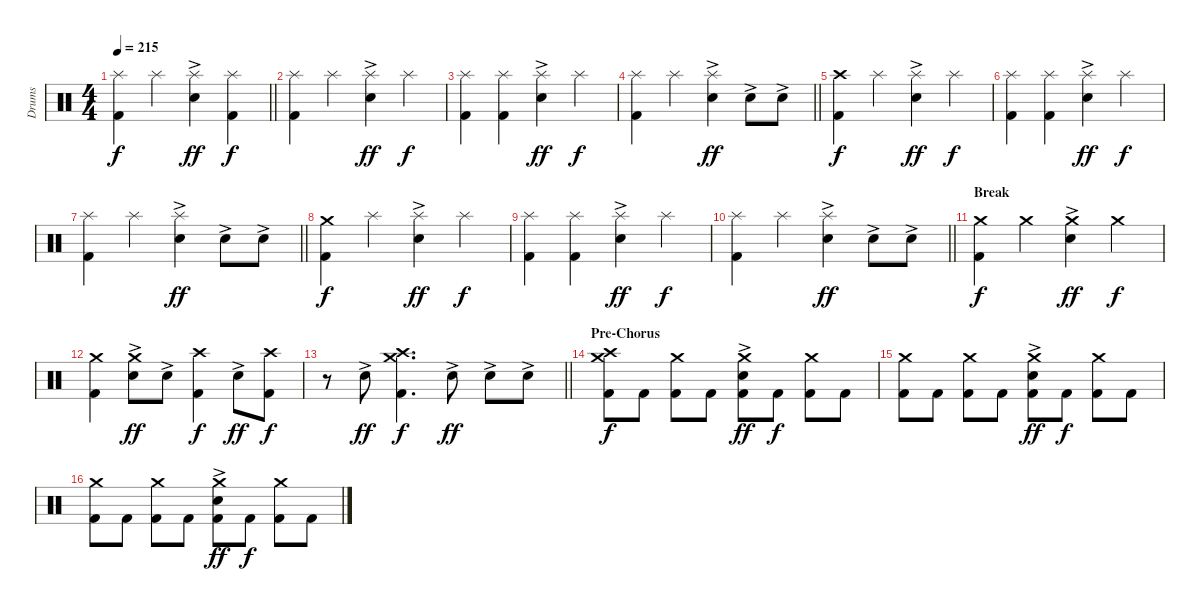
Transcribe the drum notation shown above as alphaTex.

\track ("Drums" "Drums") {instrument percussion}
\staff {score}
\articulation defaults
\ts (4 4)
\tempo 215
\clef neutral
\barLineRight lightlight
\ks c
("Kick (hit) 2" "Splash (hit)").4{dy f} "Splash (hit)".4 ("Snare (hit) 2"{ac} "Splash (hit)").4{dy ff} ("Kick (hit) 2" "Splash (hit)").4{dy f} |
\section ("" "")
("Kick (hit) 2" "Splash (hit)").4 "Splash (hit)".4 ("Snare (hit) 2"{ac} "Splash (hit)").4{dy ff} "Splash (hit)".4{dy f} |
("Kick (hit) 2" "Splash (hit)").4 ("Kick (hit) 2" "Splash (hit)").4 ("Snare (hit) 2"{ac} "Splash (hit)").4{dy ff} "Splash (hit)".4{dy f} |
\barLineRight lightlight
("Kick (hit) 2" "Splash (hit)").4 "Splash (hit)".4 ("Snare (hit) 2"{ac} "Splash (hit)").4{dy ff} "Snare (hit) 2"{ac}.8 "Snare (hit) 2"{ac}.8 |
\section ("" "")
("Kick (hit) 2" "Crash high (hit)").4{dy f} "Splash (hit)".4 ("Snare (hit) 2"{ac} "Splash (hit)").4{dy ff} "Splash (hit)".4{dy f} |
("Kick (hit) 2" "Splash (hit)").4 ("Kick (hit) 2" "Splash (hit)").4 ("Snare (hit) 2"{ac} "Splash (hit)").4{dy ff} "Splash (hit)".4{dy f} |
\barLineRight lightlight
("Kick (hit) 2" "Splash (hit)").4 "Splash (hit)".4 ("Snare (hit) 2"{ac} "Splash (hit)").4{dy ff} "Snare (hit) 2"{ac}.8 "Snare (hit) 2"{ac}.8 |
\section ("" "")
("Kick (hit) 2" "Crash medium (hit)").4{dy f} "Splash (hit)".4 ("Snare (hit) 2"{ac} "Splash (hit)").4{dy ff} "Splash (hit)".4{dy f} |
("Kick (hit) 2" "Splash (hit)").4 ("Kick (hit) 2" "Splash (hit)").4 ("Snare (hit) 2"{ac} "Splash (hit)").4{dy ff} "Splash (hit)".4{dy f} |
\barLineRight lightlight
("Kick (hit) 2" "Splash (hit)").4 "Splash (hit)".4 ("Snare (hit) 2"{ac} "Splash (hit)").4{dy ff} "Snare (hit) 2"{ac}.8 "Snare (hit) 2"{ac}.8 |
\section ("" "Break")
("Kick (hit) 2" "Crash medium (hit)").4{dy f} "Crash medium (hit)".4 ("Snare (hit) 2"{ac} "Crash medium (hit)").4{dy ff} "Crash medium (hit)".4{dy f} |
("Kick (hit) 2" "Crash medium (hit)").4 ("Snare (hit) 2"{ac} "Crash medium (hit)").8{dy ff} "Snare (hit) 2"{ac}.8 ("Kick (hit) 2" "Crash high (hit)").4{dy f} "Snare (hit) 2"{ac}.8{dy ff} ("Kick (hit) 2" "Crash high (hit)").8{dy f} |
\barLineRight lightlight
r.8 "Snare (hit) 2"{ac}.8{dy ff} ("Kick (hit) 2" "Crash medium (hit)" "Crash high (hit)").4{d dy f} "Snare (hit) 2"{ac}.8{dy ff} "Snare (hit) 2"{ac}.8 "Snare (hit) 2"{ac}.8 |
\section ("" "Pre-Chorus")
("Kick (hit) 2" "Crash medium (hit)" "Crash high (hit)").8{dy f} "Kick (hit) 2".8 ("Kick (hit) 2" "Crash medium (hit)").8 "Kick (hit) 2".8 ("Kick (hit) 2" "Snare (hit) 2"{ac} "Crash medium (hit)").8{dy ff} "Kick (hit) 2".8{dy f} ("Kick (hit) 2" "Crash medium (hit)").8 "Kick (hit) 2".8 |
("Kick (hit) 2" "Crash medium (hit)").8 "Kick (hit) 2".8 ("Kick (hit) 2" "Crash medium (hit)").8 "Kick (hit) 2".8 ("Kick (hit) 2" "Snare (hit) 2"{ac} "Crash medium (hit)").8{dy ff} "Kick (hit) 2".8{dy f} ("Kick (hit) 2" "Crash medium (hit)").8 "Kick (hit) 2".8 |
("Kick (hit) 2" "Crash medium (hit)").8 "Kick (hit) 2".8 ("Kick (hit) 2" "Crash medium (hit)").8 "Kick (hit) 2".8 ("Kick (hit) 2" "Snare (hit) 2"{ac} "Crash medium (hit)").8{dy ff} "Kick (hit) 2".8{dy f} ("Kick (hit) 2" "Crash medium (hit)").8 "Kick (hit) 2".8
